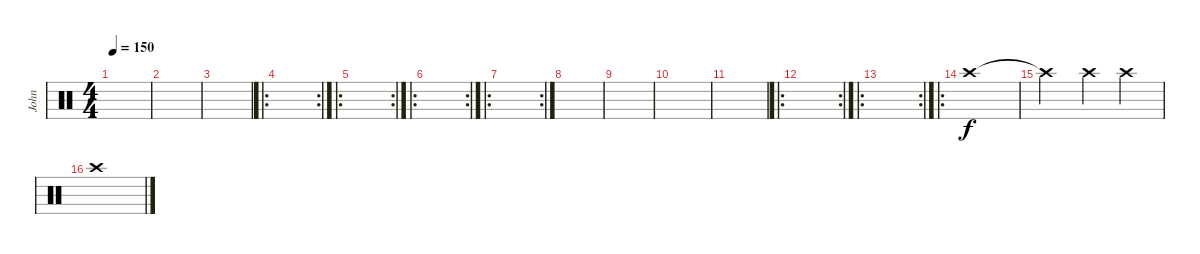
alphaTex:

\track ("John" "John") {instrument percussion}
\staff {score}
\articulation defaults
\ts (4 4)
\tempo 150
\clef neutral
\ks c
|
|
|
\ro
\rc 2
|
\ro
\rc 2
|
\ro
\rc 2
|
\ro
\rc 2
|
|
|
|
|
\ro
\rc 2
|
\ro
\rc 2
|
\ro "Crash high (hit)".1
|
"Crash high (hit)"{t}.2 "Crash high (hit)".4 "Crash high (hit)".4 |
"Crash high (hit)".1
